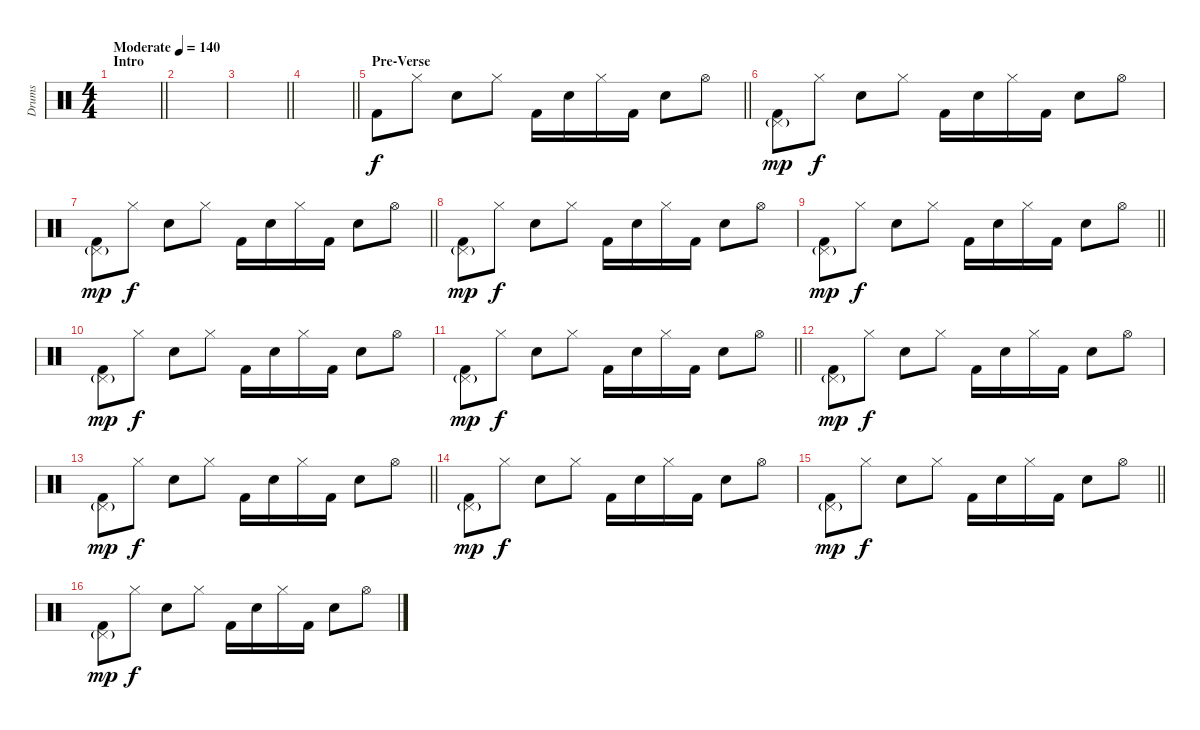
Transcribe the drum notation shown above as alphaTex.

\track ("Drums" "Drums") {instrument percussion}
\staff {score}
\articulation defaults
\ts (4 4)
\section ("" "Intro")
\tempo (140 "Moderate")
\clef neutral
\barLineRight lightlight
\ks c
|
|
\barLineRight lightlight
|
\barLineRight lightlight
|
\section ("" "Pre-Verse")
\barLineRight lightlight "Kick (hit) 2".8 "Hi-Hat (closed)".8 "Snare (hit) 2".8 "Hi-Hat (closed)".8 "Kick (hit) 2".16 "Snare (hit) 2".16 "Hi-Hat (closed)".16 "Kick (hit) 2".16 "Snare (hit) 2".8 "Hi-Hat (open)".8
|
("Pedal Hi-Hat (hit)"{g} "Kick (hit) 2").8{dy mp} "Hi-Hat (closed)".8{dy f} "Snare (hit) 2".8 "Hi-Hat (closed)".8 "Kick (hit) 2".16 "Snare (hit) 2".16 "Hi-Hat (closed)".16 "Kick (hit) 2".16 "Snare (hit) 2".8 "Hi-Hat (open)".8 |
\barLineRight lightlight
("Pedal Hi-Hat (hit)"{g} "Kick (hit) 2").8{dy mp} "Hi-Hat (closed)".8{dy f} "Snare (hit) 2".8 "Hi-Hat (closed)".8 "Kick (hit) 2".16 "Snare (hit) 2".16 "Hi-Hat (closed)".16 "Kick (hit) 2".16 "Snare (hit) 2".8 "Hi-Hat (open)".8 |
("Pedal Hi-Hat (hit)"{g} "Kick (hit) 2").8{dy mp} "Hi-Hat (closed)".8{dy f} "Snare (hit) 2".8 "Hi-Hat (closed)".8 "Kick (hit) 2".16 "Snare (hit) 2".16 "Hi-Hat (closed)".16 "Kick (hit) 2".16 "Snare (hit) 2".8 "Hi-Hat (open)".8 |
\barLineRight lightlight
("Pedal Hi-Hat (hit)"{g} "Kick (hit) 2").8{dy mp} "Hi-Hat (closed)".8{dy f} "Snare (hit) 2".8 "Hi-Hat (closed)".8 "Kick (hit) 2".16 "Snare (hit) 2".16 "Hi-Hat (closed)".16 "Kick (hit) 2".16 "Snare (hit) 2".8 "Hi-Hat (open)".8 |
("Pedal Hi-Hat (hit)"{g} "Kick (hit) 2").8{dy mp} "Hi-Hat (closed)".8{dy f} "Snare (hit) 2".8 "Hi-Hat (closed)".8 "Kick (hit) 2".16 "Snare (hit) 2".16 "Hi-Hat (closed)".16 "Kick (hit) 2".16 "Snare (hit) 2".8 "Hi-Hat (open)".8 |
\barLineRight lightlight
("Pedal Hi-Hat (hit)"{g} "Kick (hit) 2").8{dy mp} "Hi-Hat (closed)".8{dy f} "Snare (hit) 2".8 "Hi-Hat (closed)".8 "Kick (hit) 2".16 "Snare (hit) 2".16 "Hi-Hat (closed)".16 "Kick (hit) 2".16 "Snare (hit) 2".8 "Hi-Hat (open)".8 |
("Pedal Hi-Hat (hit)"{g} "Kick (hit) 2").8{dy mp} "Hi-Hat (closed)".8{dy f} "Snare (hit) 2".8 "Hi-Hat (closed)".8 "Kick (hit) 2".16 "Snare (hit) 2".16 "Hi-Hat (closed)".16 "Kick (hit) 2".16 "Snare (hit) 2".8 "Hi-Hat (open)".8 |
\barLineRight lightlight
("Pedal Hi-Hat (hit)"{g} "Kick (hit) 2").8{dy mp} "Hi-Hat (closed)".8{dy f} "Snare (hit) 2".8 "Hi-Hat (closed)".8 "Kick (hit) 2".16 "Snare (hit) 2".16 "Hi-Hat (closed)".16 "Kick (hit) 2".16 "Snare (hit) 2".8 "Hi-Hat (open)".8 |
("Pedal Hi-Hat (hit)"{g} "Kick (hit) 2").8{dy mp} "Hi-Hat (closed)".8{dy f} "Snare (hit) 2".8 "Hi-Hat (closed)".8 "Kick (hit) 2".16 "Snare (hit) 2".16 "Hi-Hat (closed)".16 "Kick (hit) 2".16 "Snare (hit) 2".8 "Hi-Hat (open)".8 |
\barLineRight lightlight
("Pedal Hi-Hat (hit)"{g} "Kick (hit) 2").8{dy mp} "Hi-Hat (closed)".8{dy f} "Snare (hit) 2".8 "Hi-Hat (closed)".8 "Kick (hit) 2".16 "Snare (hit) 2".16 "Hi-Hat (closed)".16 "Kick (hit) 2".16 "Snare (hit) 2".8 "Hi-Hat (open)".8 |
("Pedal Hi-Hat (hit)"{g} "Kick (hit) 2").8{dy mp} "Hi-Hat (closed)".8{dy f} "Snare (hit) 2".8 "Hi-Hat (closed)".8 "Kick (hit) 2".16 "Snare (hit) 2".16 "Hi-Hat (closed)".16 "Kick (hit) 2".16 "Snare (hit) 2".8 "Hi-Hat (open)".8
